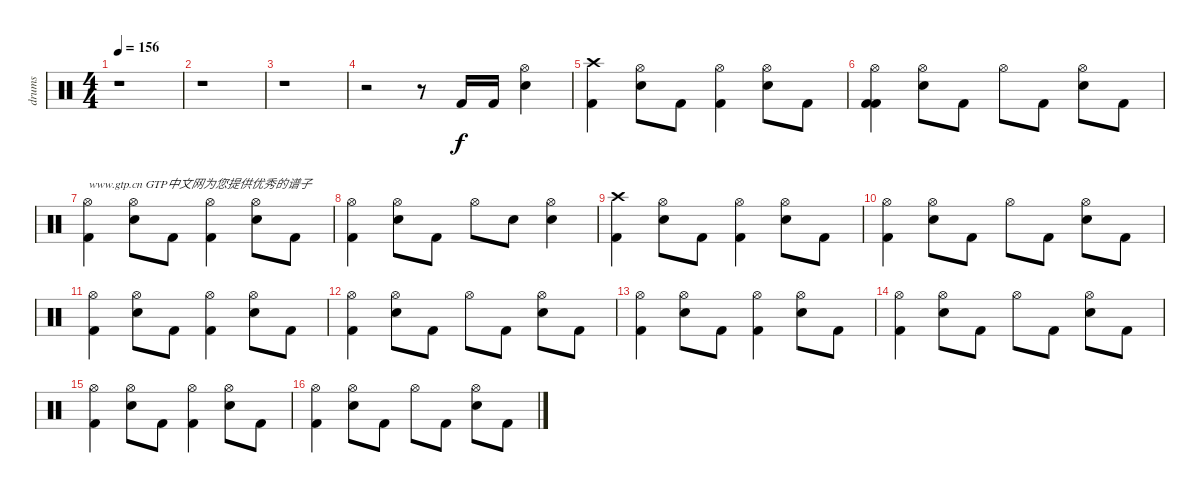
\track ("drums" "drums") {instrument percussion}
\staff {score}
\articulation defaults
\ts (4 4)
\tempo 156
\clef neutral
\ks c
r.1{dy f} |
r.1 |
r.1 |
r.2 r.8 "Kick (hit) 2".16 "Kick (hit) 2".16 ("Electric Snare (hit)" "Hi-Hat (open)").4 |
("Kick (hit) 2" "Crash high (hit)").4 ("Electric Snare (hit)" "Hi-Hat (open)").8 "Kick (hit) 2".8 ("Kick (hit) 2" "Hi-Hat (open)").4 ("Electric Snare (hit)" "Hi-Hat (open)").8 "Kick (hit) 2".8 |
("Kick (hit) 2" "Kick (hit) 2" "Hi-Hat (open)").4 ("Electric Snare (hit)" "Hi-Hat (open)").8 "Kick (hit) 2".8 "Hi-Hat (open)".8 "Kick (hit) 2".8 ("Electric Snare (hit)" "Hi-Hat (open)").8 "Kick (hit) 2".8 |
("Kick (hit) 2" "Hi-Hat (open)").4{txt "www.gtp.cn GTP中文网为您提供优秀的谱子"} ("Electric Snare (hit)" "Hi-Hat (open)").8 "Kick (hit) 2".8 ("Kick (hit) 2" "Hi-Hat (open)").4 ("Electric Snare (hit)" "Hi-Hat (open)").8 "Kick (hit) 2".8 |
("Kick (hit) 2" "Hi-Hat (open)").4 ("Electric Snare (hit)" "Hi-Hat (open)").8 "Kick (hit) 2".8 "Hi-Hat (open)".8 "Electric Snare (hit)".8 ("Electric Snare (hit)" "Hi-Hat (open)").4 |
("Kick (hit) 2" "Crash high (hit)").4 ("Electric Snare (hit)" "Hi-Hat (open)").8 "Kick (hit) 2".8 ("Kick (hit) 2" "Hi-Hat (open)").4 ("Electric Snare (hit)" "Hi-Hat (open)").8 "Kick (hit) 2".8 |
("Kick (hit) 2" "Hi-Hat (open)").4 ("Electric Snare (hit)" "Hi-Hat (open)").8 "Kick (hit) 2".8 "Hi-Hat (open)".8 "Kick (hit) 2".8 ("Electric Snare (hit)" "Hi-Hat (open)").8 "Kick (hit) 2".8 |
("Kick (hit) 2" "Hi-Hat (open)").4 ("Electric Snare (hit)" "Hi-Hat (open)").8 "Kick (hit) 2".8 ("Kick (hit) 2" "Hi-Hat (open)").4 ("Electric Snare (hit)" "Hi-Hat (open)").8 "Kick (hit) 2".8 |
("Kick (hit) 2" "Hi-Hat (open)").4 ("Electric Snare (hit)" "Hi-Hat (open)").8 "Kick (hit) 2".8 "Hi-Hat (open)".8 "Kick (hit) 2".8 ("Electric Snare (hit)" "Hi-Hat (open)").8 "Kick (hit) 2".8 |
("Kick (hit) 2" "Hi-Hat (open)").4 ("Electric Snare (hit)" "Hi-Hat (open)").8 "Kick (hit) 2".8 ("Kick (hit) 2" "Hi-Hat (open)").4 ("Electric Snare (hit)" "Hi-Hat (open)").8 "Kick (hit) 2".8 |
("Kick (hit) 2" "Hi-Hat (open)").4 ("Electric Snare (hit)" "Hi-Hat (open)").8 "Kick (hit) 2".8 "Hi-Hat (open)".8 "Kick (hit) 2".8 ("Electric Snare (hit)" "Hi-Hat (open)").8 "Kick (hit) 2".8 |
("Kick (hit) 2" "Hi-Hat (open)").4 ("Electric Snare (hit)" "Hi-Hat (open)").8 "Kick (hit) 2".8 ("Kick (hit) 2" "Hi-Hat (open)").4 ("Electric Snare (hit)" "Hi-Hat (open)").8 "Kick (hit) 2".8 |
("Kick (hit) 2" "Hi-Hat (open)").4 ("Electric Snare (hit)" "Hi-Hat (open)").8 "Kick (hit) 2".8 "Hi-Hat (open)".8 "Kick (hit) 2".8 ("Electric Snare (hit)" "Hi-Hat (open)").8 "Kick (hit) 2".8
